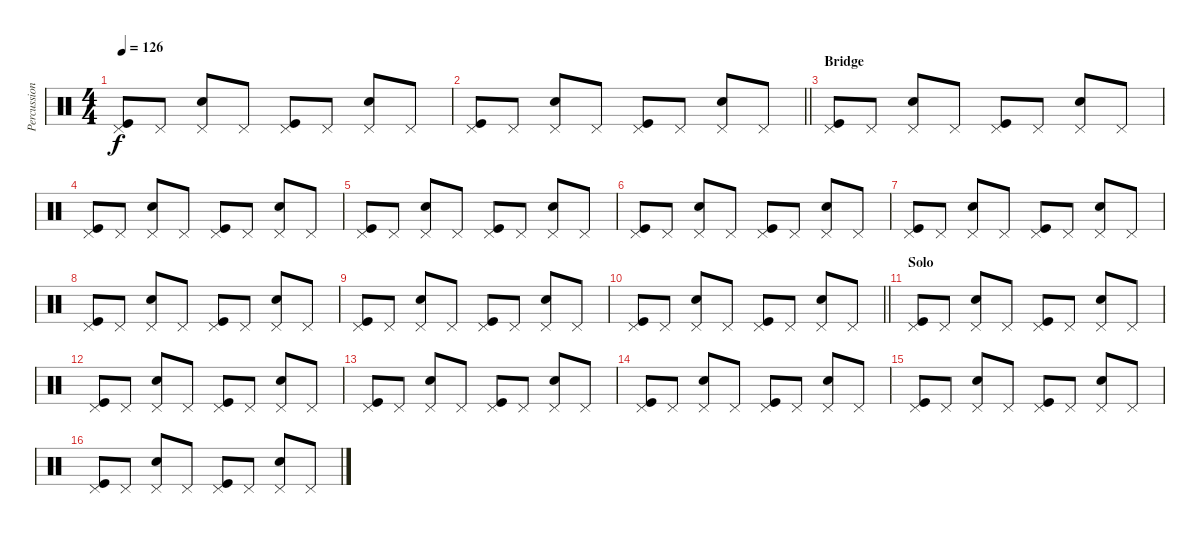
\track ("Percussion" "Percussion") {instrument percussion}
\staff {score}
\articulation defaults
\ts (4 4)
\tempo 126
\clef neutral
\ks c
("Pedal Hi-Hat (hit)" "Kick (hit)").8{dy f} "Pedal Hi-Hat (hit)".8 ("Pedal Hi-Hat (hit)" "Snare (hit) 2").8 "Pedal Hi-Hat (hit)".8 ("Pedal Hi-Hat (hit)" "Kick (hit)").8 "Pedal Hi-Hat (hit)".8 ("Pedal Hi-Hat (hit)" "Snare (hit) 2").8 "Pedal Hi-Hat (hit)".8 |
\barLineRight lightlight
("Pedal Hi-Hat (hit)" "Kick (hit)").8 "Pedal Hi-Hat (hit)".8 ("Pedal Hi-Hat (hit)" "Snare (hit) 2").8 "Pedal Hi-Hat (hit)".8 ("Pedal Hi-Hat (hit)" "Kick (hit)").8 "Pedal Hi-Hat (hit)".8 ("Pedal Hi-Hat (hit)" "Snare (hit) 2").8 "Pedal Hi-Hat (hit)".8 |
\section ("" "Bridge")
("Pedal Hi-Hat (hit)" "Kick (hit)").8 "Pedal Hi-Hat (hit)".8 ("Pedal Hi-Hat (hit)" "Snare (hit) 2").8 "Pedal Hi-Hat (hit)".8 ("Pedal Hi-Hat (hit)" "Kick (hit)").8 "Pedal Hi-Hat (hit)".8 ("Pedal Hi-Hat (hit)" "Snare (hit) 2").8 "Pedal Hi-Hat (hit)".8 |
("Pedal Hi-Hat (hit)" "Kick (hit)").8 "Pedal Hi-Hat (hit)".8 ("Pedal Hi-Hat (hit)" "Snare (hit) 2").8 "Pedal Hi-Hat (hit)".8 ("Pedal Hi-Hat (hit)" "Kick (hit)").8 "Pedal Hi-Hat (hit)".8 ("Pedal Hi-Hat (hit)" "Snare (hit) 2").8 "Pedal Hi-Hat (hit)".8 |
("Pedal Hi-Hat (hit)" "Kick (hit)").8 "Pedal Hi-Hat (hit)".8 ("Pedal Hi-Hat (hit)" "Snare (hit) 2").8 "Pedal Hi-Hat (hit)".8 ("Pedal Hi-Hat (hit)" "Kick (hit)").8 "Pedal Hi-Hat (hit)".8 ("Pedal Hi-Hat (hit)" "Snare (hit) 2").8 "Pedal Hi-Hat (hit)".8 |
("Pedal Hi-Hat (hit)" "Kick (hit)").8 "Pedal Hi-Hat (hit)".8 ("Pedal Hi-Hat (hit)" "Snare (hit) 2").8 "Pedal Hi-Hat (hit)".8 ("Pedal Hi-Hat (hit)" "Kick (hit)").8 "Pedal Hi-Hat (hit)".8 ("Pedal Hi-Hat (hit)" "Snare (hit) 2").8 "Pedal Hi-Hat (hit)".8 |
("Pedal Hi-Hat (hit)" "Kick (hit)").8 "Pedal Hi-Hat (hit)".8 ("Pedal Hi-Hat (hit)" "Snare (hit) 2").8 "Pedal Hi-Hat (hit)".8 ("Pedal Hi-Hat (hit)" "Kick (hit)").8 "Pedal Hi-Hat (hit)".8 ("Pedal Hi-Hat (hit)" "Snare (hit) 2").8 "Pedal Hi-Hat (hit)".8 |
("Pedal Hi-Hat (hit)" "Kick (hit)").8 "Pedal Hi-Hat (hit)".8 ("Pedal Hi-Hat (hit)" "Snare (hit) 2").8 "Pedal Hi-Hat (hit)".8 ("Pedal Hi-Hat (hit)" "Kick (hit)").8 "Pedal Hi-Hat (hit)".8 ("Pedal Hi-Hat (hit)" "Snare (hit) 2").8 "Pedal Hi-Hat (hit)".8 |
("Pedal Hi-Hat (hit)" "Kick (hit)").8 "Pedal Hi-Hat (hit)".8 ("Pedal Hi-Hat (hit)" "Snare (hit) 2").8 "Pedal Hi-Hat (hit)".8 ("Pedal Hi-Hat (hit)" "Kick (hit)").8 "Pedal Hi-Hat (hit)".8 ("Pedal Hi-Hat (hit)" "Snare (hit) 2").8 "Pedal Hi-Hat (hit)".8 |
\barLineRight lightlight
("Pedal Hi-Hat (hit)" "Kick (hit)").8 "Pedal Hi-Hat (hit)".8 ("Pedal Hi-Hat (hit)" "Snare (hit) 2").8 "Pedal Hi-Hat (hit)".8 ("Pedal Hi-Hat (hit)" "Kick (hit)").8 "Pedal Hi-Hat (hit)".8 ("Pedal Hi-Hat (hit)" "Snare (hit) 2").8 "Pedal Hi-Hat (hit)".8 |
\section ("" "Solo")
("Pedal Hi-Hat (hit)" "Kick (hit)").8 "Pedal Hi-Hat (hit)".8 ("Pedal Hi-Hat (hit)" "Snare (hit) 2").8 "Pedal Hi-Hat (hit)".8 ("Pedal Hi-Hat (hit)" "Kick (hit)").8 "Pedal Hi-Hat (hit)".8 ("Pedal Hi-Hat (hit)" "Snare (hit) 2").8 "Pedal Hi-Hat (hit)".8 |
("Pedal Hi-Hat (hit)" "Kick (hit)").8 "Pedal Hi-Hat (hit)".8 ("Pedal Hi-Hat (hit)" "Snare (hit) 2").8 "Pedal Hi-Hat (hit)".8 ("Pedal Hi-Hat (hit)" "Kick (hit)").8 "Pedal Hi-Hat (hit)".8 ("Pedal Hi-Hat (hit)" "Snare (hit) 2").8 "Pedal Hi-Hat (hit)".8 |
("Pedal Hi-Hat (hit)" "Kick (hit)").8 "Pedal Hi-Hat (hit)".8 ("Pedal Hi-Hat (hit)" "Snare (hit) 2").8 "Pedal Hi-Hat (hit)".8 ("Pedal Hi-Hat (hit)" "Kick (hit)").8 "Pedal Hi-Hat (hit)".8 ("Pedal Hi-Hat (hit)" "Snare (hit) 2").8 "Pedal Hi-Hat (hit)".8 |
("Pedal Hi-Hat (hit)" "Kick (hit)").8 "Pedal Hi-Hat (hit)".8 ("Pedal Hi-Hat (hit)" "Snare (hit) 2").8 "Pedal Hi-Hat (hit)".8 ("Pedal Hi-Hat (hit)" "Kick (hit)").8 "Pedal Hi-Hat (hit)".8 ("Pedal Hi-Hat (hit)" "Snare (hit) 2").8 "Pedal Hi-Hat (hit)".8 |
("Pedal Hi-Hat (hit)" "Kick (hit)").8 "Pedal Hi-Hat (hit)".8 ("Pedal Hi-Hat (hit)" "Snare (hit) 2").8 "Pedal Hi-Hat (hit)".8 ("Pedal Hi-Hat (hit)" "Kick (hit)").8 "Pedal Hi-Hat (hit)".8 ("Pedal Hi-Hat (hit)" "Snare (hit) 2").8 "Pedal Hi-Hat (hit)".8 |
("Pedal Hi-Hat (hit)" "Kick (hit)").8 "Pedal Hi-Hat (hit)".8 ("Pedal Hi-Hat (hit)" "Snare (hit) 2").8 "Pedal Hi-Hat (hit)".8 ("Pedal Hi-Hat (hit)" "Kick (hit)").8 "Pedal Hi-Hat (hit)".8 ("Pedal Hi-Hat (hit)" "Snare (hit) 2").8 "Pedal Hi-Hat (hit)".8
